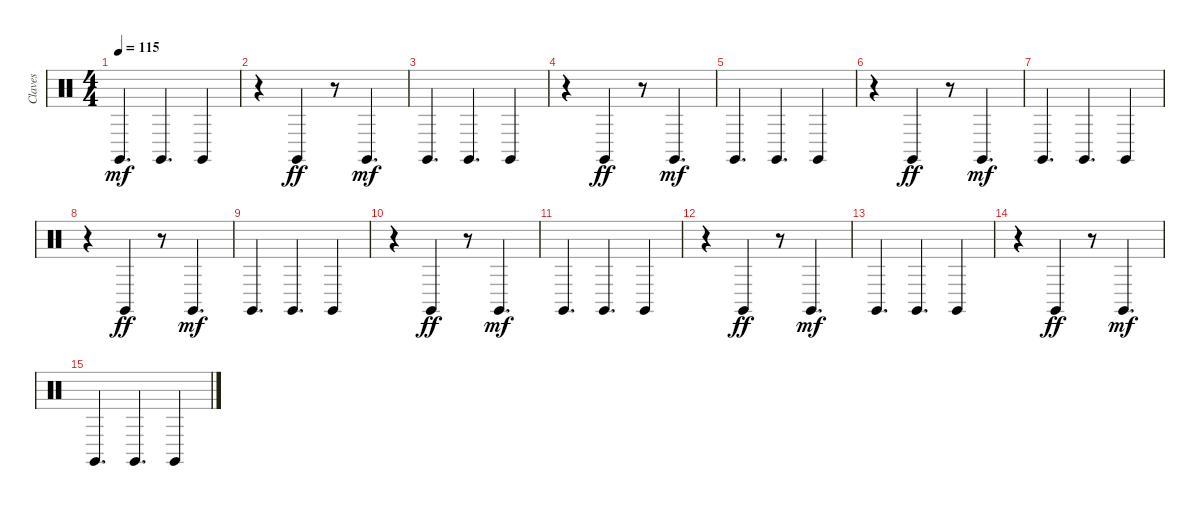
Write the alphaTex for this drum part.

\track ("Claves" "Claves") {instrument percussion}
\staff {score}
\articulation defaults
\ts (4 4)
\tempo 115
\clef neutral
\ks c "Claves (hit)".4{d dy mf} "Claves (hit)".4{d} "Claves (hit)".4
|
r.4 "Claves (hit)".4{dy ff} r.8 "Claves (hit)".4{d dy mf} |
"Claves (hit)".4{d} "Claves (hit)".4{d} "Claves (hit)".4 |
r.4 "Claves (hit)".4{dy ff} r.8 "Claves (hit)".4{d dy mf} |
"Claves (hit)".4{d} "Claves (hit)".4{d} "Claves (hit)".4 |
r.4 "Claves (hit)".4{dy ff} r.8 "Claves (hit)".4{d dy mf} |
"Claves (hit)".4{d} "Claves (hit)".4{d} "Claves (hit)".4 |
r.4 "Claves (hit)".4{dy ff} r.8 "Claves (hit)".4{d dy mf} |
"Claves (hit)".4{d} "Claves (hit)".4{d} "Claves (hit)".4 |
r.4 "Claves (hit)".4{dy ff} r.8 "Claves (hit)".4{d dy mf} |
"Claves (hit)".4{d} "Claves (hit)".4{d} "Claves (hit)".4 |
r.4 "Claves (hit)".4{dy ff} r.8 "Claves (hit)".4{d dy mf} |
"Claves (hit)".4{d} "Claves (hit)".4{d} "Claves (hit)".4 |
r.4 "Claves (hit)".4{dy ff} r.8 "Claves (hit)".4{d dy mf} |
"Claves (hit)".4{d} "Claves (hit)".4{d} "Claves (hit)".4
